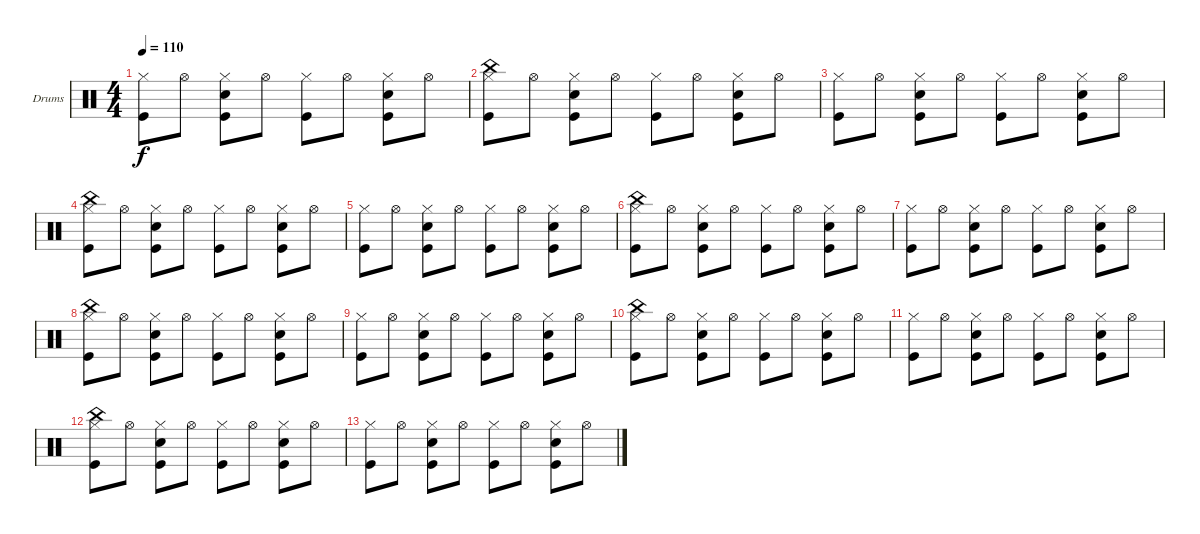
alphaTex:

\bracketExtendMode groupsimilarinstruments
\firstSystemTrackNameOrientation horizontal
\otherSystemsTrackNameOrientation horizontal
\track ("Drumkit" "Drums") {instrument percussion}
\staff {score}
\articulation defaults
\ts (4 4)
\tempo 110
\clef neutral
\ks c
("Kick (hit)" "Hi-Hat (closed)").8{dy f} "Hi-Hat (open)".8 ("Snare (hit) 2" "Kick (hit)" "Hi-Hat (closed)").8 "Hi-Hat (open)".8 ("Kick (hit)" "Hi-Hat (closed)").8 "Hi-Hat (open)".8 ("Snare (hit) 2" "Kick (hit)" "Hi-Hat (closed)").8 "Hi-Hat (open)".8 |
("Kick (hit)" "Hi-Hat (closed)" "China (hit)").8 "Hi-Hat (open)".8 ("Snare (hit) 2" "Kick (hit)" "Hi-Hat (closed)").8 "Hi-Hat (open)".8 ("Kick (hit)" "Hi-Hat (closed)").8 "Hi-Hat (open)".8 ("Snare (hit) 2" "Kick (hit)" "Hi-Hat (closed)").8 "Hi-Hat (open)".8 |
("Kick (hit)" "Hi-Hat (closed)").8 "Hi-Hat (open)".8 ("Snare (hit) 2" "Kick (hit)" "Hi-Hat (closed)").8 "Hi-Hat (open)".8 ("Kick (hit)" "Hi-Hat (closed)").8 "Hi-Hat (open)".8 ("Snare (hit) 2" "Kick (hit)" "Hi-Hat (closed)").8 "Hi-Hat (open)".8 |
("Kick (hit)" "Hi-Hat (closed)" "China (hit)").8 "Hi-Hat (open)".8 ("Snare (hit) 2" "Kick (hit)" "Hi-Hat (closed)").8 "Hi-Hat (open)".8 ("Kick (hit)" "Hi-Hat (closed)").8 "Hi-Hat (open)".8 ("Snare (hit) 2" "Kick (hit)" "Hi-Hat (closed)").8 "Hi-Hat (open)".8 |
("Kick (hit)" "Hi-Hat (closed)").8 "Hi-Hat (open)".8 ("Snare (hit) 2" "Kick (hit)" "Hi-Hat (closed)").8 "Hi-Hat (open)".8 ("Kick (hit)" "Hi-Hat (closed)").8 "Hi-Hat (open)".8 ("Snare (hit) 2" "Kick (hit)" "Hi-Hat (closed)").8 "Hi-Hat (open)".8 |
("Kick (hit)" "Hi-Hat (closed)" "China (hit)").8 "Hi-Hat (open)".8 ("Snare (hit) 2" "Kick (hit)" "Hi-Hat (closed)").8 "Hi-Hat (open)".8 ("Kick (hit)" "Hi-Hat (closed)").8 "Hi-Hat (open)".8 ("Snare (hit) 2" "Kick (hit)" "Hi-Hat (closed)").8 "Hi-Hat (open)".8 |
("Kick (hit)" "Hi-Hat (closed)").8 "Hi-Hat (open)".8 ("Snare (hit) 2" "Kick (hit)" "Hi-Hat (closed)").8 "Hi-Hat (open)".8 ("Kick (hit)" "Hi-Hat (closed)").8 "Hi-Hat (open)".8 ("Snare (hit) 2" "Kick (hit)" "Hi-Hat (closed)").8 "Hi-Hat (open)".8 |
("Kick (hit)" "Hi-Hat (closed)" "China (hit)").8 "Hi-Hat (open)".8 ("Snare (hit) 2" "Kick (hit)" "Hi-Hat (closed)").8 "Hi-Hat (open)".8 ("Kick (hit)" "Hi-Hat (closed)").8 "Hi-Hat (open)".8 ("Snare (hit) 2" "Kick (hit)" "Hi-Hat (closed)").8 "Hi-Hat (open)".8 |
("Kick (hit)" "Hi-Hat (closed)").8 "Hi-Hat (open)".8 ("Snare (hit) 2" "Kick (hit)" "Hi-Hat (closed)").8 "Hi-Hat (open)".8 ("Kick (hit)" "Hi-Hat (closed)").8 "Hi-Hat (open)".8 ("Snare (hit) 2" "Kick (hit)" "Hi-Hat (closed)").8 "Hi-Hat (open)".8 |
("Kick (hit)" "Hi-Hat (closed)" "China (hit)").8 "Hi-Hat (open)".8 ("Snare (hit) 2" "Kick (hit)" "Hi-Hat (closed)").8 "Hi-Hat (open)".8 ("Kick (hit)" "Hi-Hat (closed)").8 "Hi-Hat (open)".8 ("Snare (hit) 2" "Kick (hit)" "Hi-Hat (closed)").8 "Hi-Hat (open)".8 |
("Kick (hit)" "Hi-Hat (closed)").8 "Hi-Hat (open)".8 ("Snare (hit) 2" "Kick (hit)" "Hi-Hat (closed)").8 "Hi-Hat (open)".8 ("Kick (hit)" "Hi-Hat (closed)").8 "Hi-Hat (open)".8 ("Snare (hit) 2" "Kick (hit)" "Hi-Hat (closed)").8 "Hi-Hat (open)".8 |
("Kick (hit)" "Hi-Hat (closed)" "China (hit)").8 "Hi-Hat (open)".8 ("Snare (hit) 2" "Kick (hit)" "Hi-Hat (closed)").8 "Hi-Hat (open)".8 ("Kick (hit)" "Hi-Hat (closed)").8 "Hi-Hat (open)".8 ("Snare (hit) 2" "Kick (hit)" "Hi-Hat (closed)").8 "Hi-Hat (open)".8 |
("Kick (hit)" "Hi-Hat (closed)").8 "Hi-Hat (open)".8 ("Snare (hit) 2" "Kick (hit)" "Hi-Hat (closed)").8 "Hi-Hat (open)".8 ("Kick (hit)" "Hi-Hat (closed)").8 "Hi-Hat (open)".8 ("Snare (hit) 2" "Kick (hit)" "Hi-Hat (closed)").8 "Hi-Hat (open)".8
